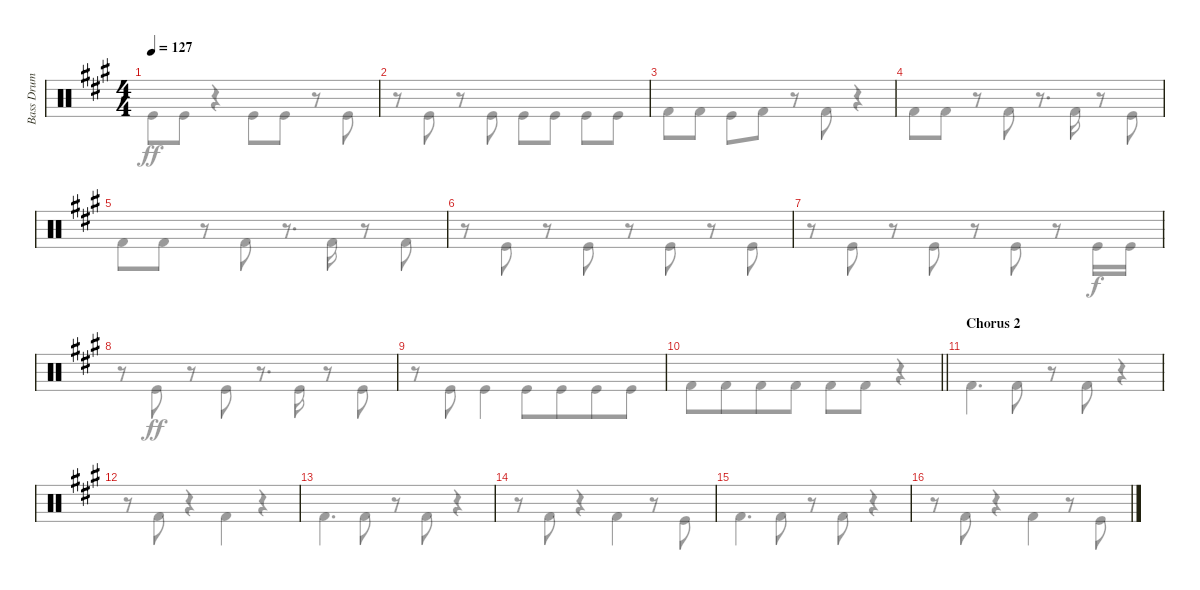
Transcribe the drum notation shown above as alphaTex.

\track ("Bass Drum" "Bass Drum") {instrument percussion}
\staff {score}
\articulation defaults
\voice
\ts (4 4)
\tempo 127
\clef neutral
\ks a
|
|
|
|
|
|
|
|
|
\barLineRight lightlight
|
\section ("" "Chorus 2")
|
|
|
|
|
\voice
\clef neutral
\ks a "Kick (hit)".8{dy ff} "Kick (hit)".8
r.4 "Kick (hit)".8 "Kick (hit)".8 r.8 "Kick (hit)".8 |
r.8 "Kick (hit)".8 r.8 "Kick (hit)".8 "Kick (hit)".8 "Kick (hit)".8 "Kick (hit)".8 "Kick (hit)".8 |
"Kick (hit) 2".8 "Kick (hit) 2".8 "Kick (hit)".8 "Kick (hit) 2".8 r.8 "Kick (hit) 2".8 r.4 |
"Kick (hit) 2".8 "Kick (hit) 2".8 r.8 "Kick (hit) 2".8 r.8{d} "Kick (hit) 2".16 r.8 "Kick (hit)".8 |
"Kick (hit) 2".8 "Kick (hit) 2".8 r.8 "Kick (hit) 2".8 r.8{d} "Kick (hit) 2".16 r.8 "Kick (hit) 2".8 |
r.8 "Kick (hit)".8 r.8 "Kick (hit)".8 r.8 "Kick (hit)".8 r.8 "Kick (hit)".8 |
r.8 "Kick (hit)".8 r.8 "Kick (hit)".8 r.8 "Kick (hit)".8 r.8 "Kick (hit)".16{dy f} "Kick (hit)".16 |
r.8 "Kick (hit)".8{dy ff} r.8 "Kick (hit)".8 r.8{d} "Kick (hit)".16 r.8 "Kick (hit)".8 |
r.8 "Kick (hit)".8 "Kick (hit)".4 "Kick (hit)".8 "Kick (hit)".8{beam merge} "Kick (hit)".8 "Kick (hit)".8 |
\barLineRight lightlight "Kick (hit) 2".8 "Kick (hit) 2".8{beam merge} "Kick (hit) 2".8 "Kick (hit) 2".8 "Kick (hit) 2".8 "Kick (hit) 2".8
r.4 |
"Kick (hit) 2".4{d} "Kick (hit) 2".8 r.8 "Kick (hit) 2".8 r.4 |
r.8 "Kick (hit) 2".8 r.4 "Kick (hit) 2".4 r.4 |
"Kick (hit) 2".4{d} "Kick (hit) 2".8 r.8 "Kick (hit) 2".8 r.4 |
r.8 "Kick (hit) 2".8 r.4 "Kick (hit) 2".4 r.8 "Kick (hit)".8 |
"Kick (hit) 2".4{d} "Kick (hit) 2".8 r.8 "Kick (hit) 2".8 r.4 |
r.8 "Kick (hit) 2".8 r.4 "Kick (hit) 2".4 r.8 "Kick (hit)".8
